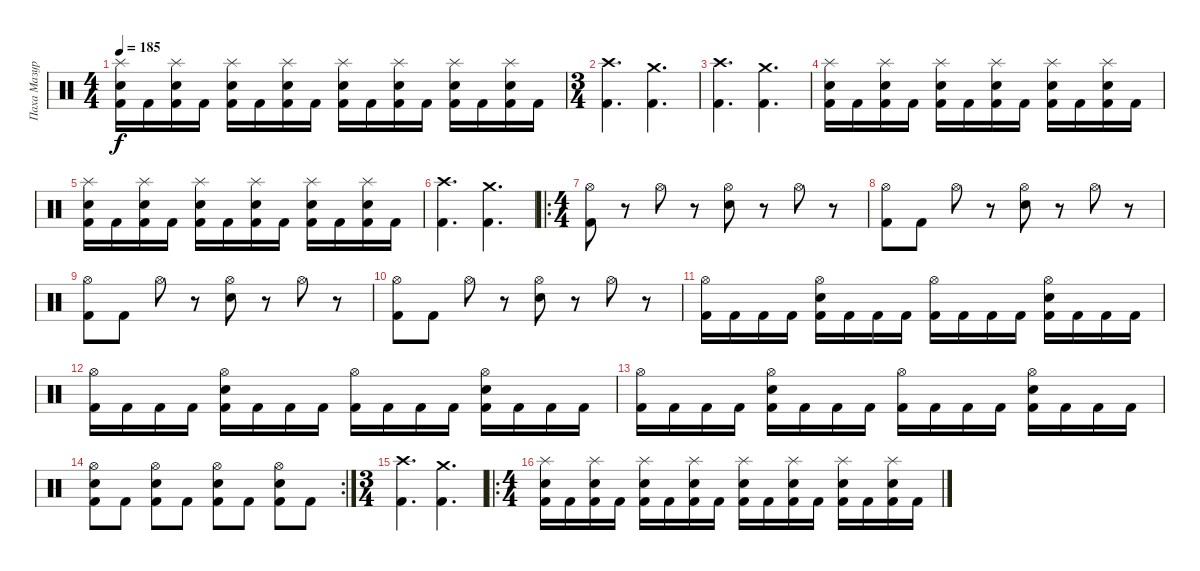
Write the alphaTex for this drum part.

\track ("Паха Мазуркевич" "Паха Мазур") {instrument percussion}
\staff {score}
\articulation defaults
\ts (4 4)
\tempo 185
\clef neutral
\ks c
("Splash (hit)" "Snare (hit) 2" "Kick (hit) 2").16{dy f} "Kick (hit) 2".16 ("Splash (hit)" "Snare (hit) 2" "Kick (hit) 2").16 "Kick (hit) 2".16 ("Splash (hit)" "Snare (hit) 2" "Kick (hit) 2").16 "Kick (hit) 2".16 ("Splash (hit)" "Snare (hit) 2" "Kick (hit) 2").16 "Kick (hit) 2".16 ("Splash (hit)" "Snare (hit) 2" "Kick (hit) 2").16 "Kick (hit) 2".16 ("Splash (hit)" "Snare (hit) 2" "Kick (hit) 2").16 "Kick (hit) 2".16 ("Splash (hit)" "Snare (hit) 2" "Kick (hit) 2").16 "Kick (hit) 2".16 ("Splash (hit)" "Snare (hit) 2" "Kick (hit) 2").16 "Kick (hit) 2".16 |
\ts (3 4)
("Crash high (hit)" "Kick (hit) 2").4{d} ("Crash medium (hit)" "Kick (hit) 2").4{d} |
("Crash high (hit)" "Kick (hit) 2").4{d} ("Crash medium (hit)" "Kick (hit) 2").4{d} |
("Splash (hit)" "Snare (hit) 2" "Kick (hit) 2").16 "Kick (hit) 2".16 ("Splash (hit)" "Snare (hit) 2" "Kick (hit) 2").16 "Kick (hit) 2".16 ("Splash (hit)" "Snare (hit) 2" "Kick (hit) 2").16 "Kick (hit) 2".16 ("Splash (hit)" "Snare (hit) 2" "Kick (hit) 2").16 "Kick (hit) 2".16 ("Splash (hit)" "Snare (hit) 2" "Kick (hit) 2").16 "Kick (hit) 2".16 ("Splash (hit)" "Snare (hit) 2" "Kick (hit) 2").16 "Kick (hit) 2".16 |
("Splash (hit)" "Snare (hit) 2" "Kick (hit) 2").16 "Kick (hit) 2".16 ("Splash (hit)" "Snare (hit) 2" "Kick (hit) 2").16 "Kick (hit) 2".16 ("Splash (hit)" "Snare (hit) 2" "Kick (hit) 2").16 "Kick (hit) 2".16 ("Splash (hit)" "Snare (hit) 2" "Kick (hit) 2").16 "Kick (hit) 2".16 ("Splash (hit)" "Snare (hit) 2" "Kick (hit) 2").16 "Kick (hit) 2".16 ("Splash (hit)" "Snare (hit) 2" "Kick (hit) 2").16 "Kick (hit) 2".16 |
("Crash high (hit)" "Kick (hit) 2").4{d} ("Crash medium (hit)" "Kick (hit) 2").4{d} |
\ro
\ts (4 4)
("Hi-Hat (open)" "Kick (hit) 2").8 r.8 "Hi-Hat (open)".8 r.8 ("Hi-Hat (open)" "Snare (hit) 2").8 r.8 "Hi-Hat (open)".8 r.8 |
("Hi-Hat (open)" "Kick (hit) 2").8 "Kick (hit) 2".8 "Hi-Hat (open)".8 r.8 ("Hi-Hat (open)" "Snare (hit) 2").8 r.8 "Hi-Hat (open)".8 r.8 |
("Hi-Hat (open)" "Kick (hit) 2").8 "Kick (hit) 2".8 "Hi-Hat (open)".8 r.8 ("Hi-Hat (open)" "Snare (hit) 2").8 r.8 "Hi-Hat (open)".8 r.8 |
("Hi-Hat (open)" "Kick (hit) 2").8 "Kick (hit) 2".8 "Hi-Hat (open)".8 r.8 ("Hi-Hat (open)" "Snare (hit) 2").8 r.8 "Hi-Hat (open)".8 r.8 |
("Hi-Hat (open)" "Kick (hit) 2").16 "Kick (hit) 2".16 "Kick (hit) 2".16 "Kick (hit) 2".16 ("Hi-Hat (open)" "Snare (hit) 2" "Kick (hit) 2").16 "Kick (hit) 2".16 "Kick (hit) 2".16 "Kick (hit) 2".16 ("Hi-Hat (open)" "Kick (hit) 2").16 "Kick (hit) 2".16 "Kick (hit) 2".16 "Kick (hit) 2".16 ("Hi-Hat (open)" "Snare (hit) 2" "Kick (hit) 2").16 "Kick (hit) 2".16 "Kick (hit) 2".16 "Kick (hit) 2".16 |
("Hi-Hat (open)" "Kick (hit) 2").16 "Kick (hit) 2".16 "Kick (hit) 2".16 "Kick (hit) 2".16 ("Hi-Hat (open)" "Snare (hit) 2" "Kick (hit) 2").16 "Kick (hit) 2".16 "Kick (hit) 2".16 "Kick (hit) 2".16 ("Hi-Hat (open)" "Kick (hit) 2").16 "Kick (hit) 2".16 "Kick (hit) 2".16 "Kick (hit) 2".16 ("Hi-Hat (open)" "Snare (hit) 2" "Kick (hit) 2").16 "Kick (hit) 2".16 "Kick (hit) 2".16 "Kick (hit) 2".16 |
("Hi-Hat (open)" "Kick (hit) 2").16 "Kick (hit) 2".16 "Kick (hit) 2".16 "Kick (hit) 2".16 ("Hi-Hat (open)" "Snare (hit) 2" "Kick (hit) 2").16 "Kick (hit) 2".16 "Kick (hit) 2".16 "Kick (hit) 2".16 ("Hi-Hat (open)" "Kick (hit) 2").16 "Kick (hit) 2".16 "Kick (hit) 2".16 "Kick (hit) 2".16 ("Hi-Hat (open)" "Snare (hit) 2" "Kick (hit) 2").16 "Kick (hit) 2".16 "Kick (hit) 2".16 "Kick (hit) 2".16 |
\rc 2
("Hi-Hat (open)" "Snare (hit) 2" "Kick (hit) 2").8 "Kick (hit) 2".8 ("Hi-Hat (open)" "Snare (hit) 2" "Kick (hit) 2").8 "Kick (hit) 2".8 ("Hi-Hat (open)" "Snare (hit) 2" "Kick (hit) 2").8 "Kick (hit) 2".8 ("Hi-Hat (open)" "Snare (hit) 2" "Kick (hit) 2").8 "Kick (hit) 2".8 |
\ts (3 4)
("Crash high (hit)" "Kick (hit) 2").4{d} ("Crash medium (hit)" "Kick (hit) 2").4{d} |
\ro
\ts (4 4)
("Splash (hit)" "Snare (hit) 2" "Kick (hit) 2").16 "Kick (hit) 2".16 ("Splash (hit)" "Snare (hit) 2" "Kick (hit) 2").16 "Kick (hit) 2".16 ("Splash (hit)" "Snare (hit) 2" "Kick (hit) 2").16 "Kick (hit) 2".16 ("Splash (hit)" "Snare (hit) 2" "Kick (hit) 2").16 "Kick (hit) 2".16 ("Splash (hit)" "Snare (hit) 2" "Kick (hit) 2").16 "Kick (hit) 2".16 ("Splash (hit)" "Snare (hit) 2" "Kick (hit) 2").16 "Kick (hit) 2".16 ("Splash (hit)" "Snare (hit) 2" "Kick (hit) 2").16 "Kick (hit) 2".16 ("Splash (hit)" "Snare (hit) 2" "Kick (hit) 2").16 "Kick (hit) 2".16
